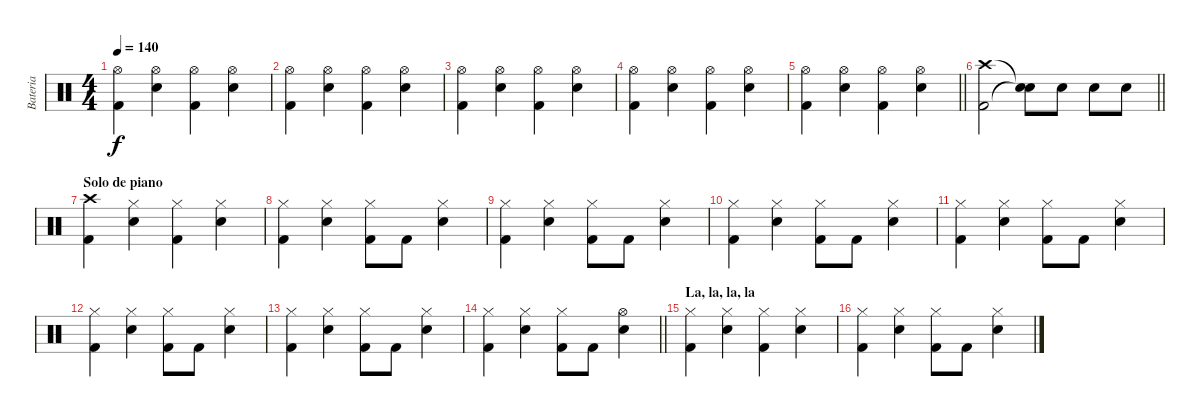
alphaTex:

\track ("Bateria" "Bateria") {instrument percussion}
\staff {score}
\articulation defaults
\ts (4 4)
\tempo 140
\clef neutral
\ks c
("Hi-Hat (open)" "Kick (hit) 2").4{dy f} ("Hi-Hat (open)" "Electric Snare (hit)").4 ("Hi-Hat (open)" "Kick (hit) 2").4 ("Hi-Hat (open)" "Electric Snare (hit)").4 |
("Hi-Hat (open)" "Kick (hit) 2").4 ("Hi-Hat (open)" "Electric Snare (hit)").4 ("Hi-Hat (open)" "Kick (hit) 2").4 ("Hi-Hat (open)" "Electric Snare (hit)").4 |
("Hi-Hat (open)" "Kick (hit) 2").4 ("Hi-Hat (open)" "Electric Snare (hit)").4 ("Hi-Hat (open)" "Kick (hit) 2").4 ("Hi-Hat (open)" "Electric Snare (hit)").4 |
("Hi-Hat (open)" "Kick (hit) 2").4 ("Hi-Hat (open)" "Electric Snare (hit)").4 ("Hi-Hat (open)" "Kick (hit) 2").4 ("Hi-Hat (open)" "Electric Snare (hit)").4 |
\barLineRight lightlight
("Hi-Hat (open)" "Kick (hit) 2").4 ("Hi-Hat (open)" "Electric Snare (hit)").4 ("Hi-Hat (open)" "Kick (hit) 2").4 ("Hi-Hat (open)" "Electric Snare (hit)").4 |
\barLineRight lightlight
("Crash high (hit)" "Kick (hit) 2").2 ("Snare (hit)"{t} "Snare (hit)"{t}).8 "Electric Snare (hit)".8 "Electric Snare (hit)".8 "Electric Snare (hit)".8 |
\section ("" "Solo de piano")
("Crash high (hit)" "Kick (hit) 2").4 ("Hi-Hat (closed)" "Electric Snare (hit)").4 ("Hi-Hat (closed)" "Kick (hit) 2").4 ("Hi-Hat (closed)" "Electric Snare (hit)").4 |
("Hi-Hat (closed)" "Kick (hit) 2").4 ("Hi-Hat (closed)" "Electric Snare (hit)").4 ("Hi-Hat (closed)" "Kick (hit) 2").8 "Kick (hit) 2".8 ("Hi-Hat (closed)" "Electric Snare (hit)").4 |
("Hi-Hat (closed)" "Kick (hit) 2").4 ("Hi-Hat (closed)" "Electric Snare (hit)").4 ("Hi-Hat (closed)" "Kick (hit) 2").8 "Kick (hit) 2".8 ("Hi-Hat (closed)" "Electric Snare (hit)").4 |
("Hi-Hat (closed)" "Kick (hit) 2").4 ("Hi-Hat (closed)" "Electric Snare (hit)").4 ("Hi-Hat (closed)" "Kick (hit) 2").8 "Kick (hit) 2".8 ("Hi-Hat (closed)" "Electric Snare (hit)").4 |
("Hi-Hat (closed)" "Kick (hit) 2").4 ("Hi-Hat (closed)" "Electric Snare (hit)").4 ("Hi-Hat (closed)" "Kick (hit) 2").8 "Kick (hit) 2".8 ("Hi-Hat (closed)" "Electric Snare (hit)").4 |
("Hi-Hat (closed)" "Kick (hit) 2").4 ("Hi-Hat (closed)" "Electric Snare (hit)").4 ("Hi-Hat (closed)" "Kick (hit) 2").8 "Kick (hit) 2".8 ("Hi-Hat (closed)" "Electric Snare (hit)").4 |
("Hi-Hat (closed)" "Kick (hit) 2").4 ("Hi-Hat (closed)" "Electric Snare (hit)").4 ("Hi-Hat (closed)" "Kick (hit) 2").8 "Kick (hit) 2".8 ("Hi-Hat (closed)" "Electric Snare (hit)").4 |
\barLineRight lightlight
("Hi-Hat (closed)" "Kick (hit) 2").4 ("Hi-Hat (closed)" "Electric Snare (hit)").4 ("Hi-Hat (closed)" "Kick (hit) 2").8 "Kick (hit) 2".8 ("Hi-Hat (open)" "Electric Snare (hit)").4 |
\section ("" "La, la, la, la")
("Hi-Hat (closed)" "Kick (hit) 2").4 ("Hi-Hat (closed)" "Electric Snare (hit)").4 ("Hi-Hat (closed)" "Kick (hit) 2").4 ("Hi-Hat (closed)" "Electric Snare (hit)").4 |
("Hi-Hat (closed)" "Kick (hit) 2").4 ("Hi-Hat (closed)" "Electric Snare (hit)").4 ("Hi-Hat (closed)" "Kick (hit) 2").8 "Kick (hit) 2".8 ("Hi-Hat (closed)" "Electric Snare (hit)").4
